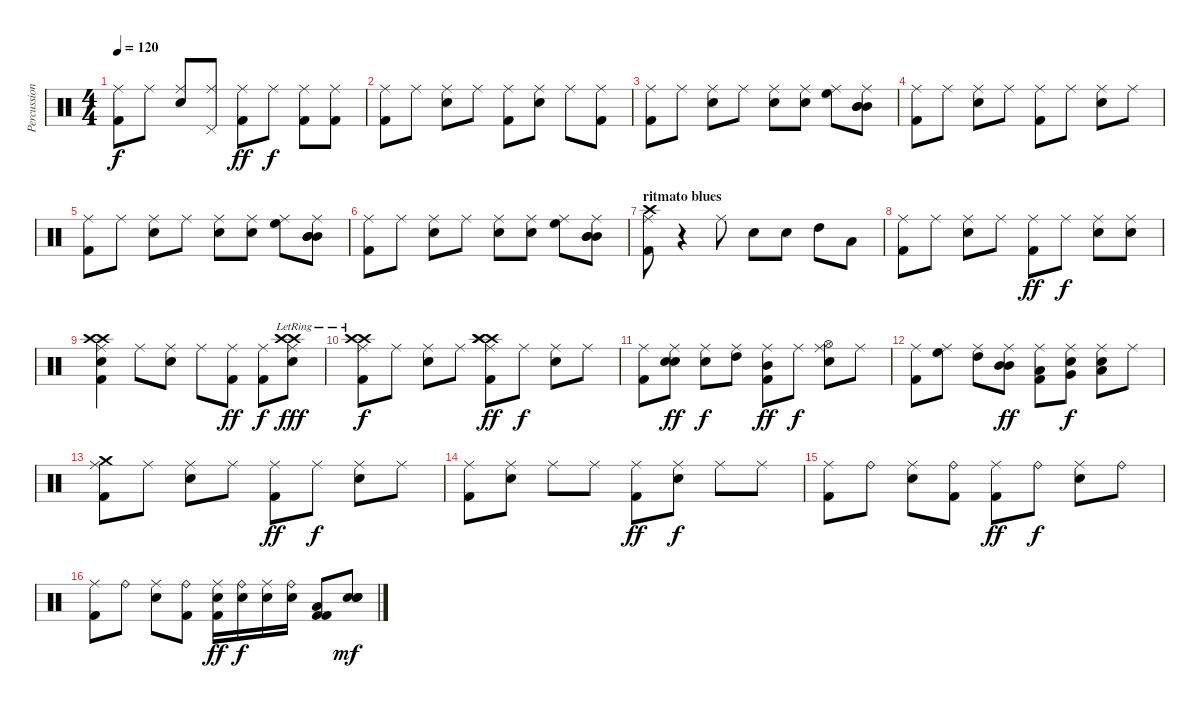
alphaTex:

\track ("Percussioni" "Percussion") {instrument percussion}
\staff {score}
\articulation defaults
\ts (4 4)
\tempo 120
\clef neutral
\ks c
("Kick (hit) 2" "Ride (middle)").8{dy f} "Ride (middle)".8 ("Electric Snare (hit)" "Ride (middle)").8 ("Pedal Hi-Hat (hit)" "Ride (middle)").8 ("Kick (hit) 2" "Ride (middle)").8{dy ff} "Ride (middle)".8{dy f} ("Kick (hit) 2" "Ride (middle)").8 ("Kick (hit) 2" "Ride (middle)").8 |
("Kick (hit) 2" "Ride (middle)").8 "Ride (middle)".8 ("Electric Snare (hit)" "Ride (middle)").8 "Ride (middle)".8 ("Kick (hit) 2" "Ride (middle)").8 ("Electric Snare (hit)" "Ride (middle)").8 "Ride (middle)".8 ("Kick (hit) 2" "Ride (middle)").8 |
("Kick (hit) 2" "Ride (middle)").8 "Ride (middle)".8 ("Electric Snare (hit)" "Ride (middle)").8 "Ride (middle)".8 ("Electric Snare (hit)" "Ride (middle)").8 ("Electric Snare (hit)" "Ride (middle)").8 ("High Floor Tom (hit)" "Ride (middle)").8 ("Mid Tom (hit)" "Mid Tom (hit)" "Mid Tom (hit)" "Ride (middle)").8 |
("Kick (hit) 2" "Ride (middle)").8 "Ride (middle)".8 ("Electric Snare (hit)" "Ride (middle)").8 "Ride (middle)".8 ("Kick (hit) 2" "Ride (middle)").8 "Ride (middle)".8 ("Electric Snare (hit)" "Ride (middle)").8 "Ride (middle)".8 |
("Kick (hit) 2" "Ride (middle)").8 "Ride (middle)".8 ("Electric Snare (hit)" "Ride (middle)").8 "Ride (middle)".8 ("Electric Snare (hit)" "Ride (middle)").8 ("Electric Snare (hit)" "Ride (middle)").8 ("High Floor Tom (hit)" "Ride (middle)").8 ("Mid Tom (hit)" "Mid Tom (hit)" "Mid Tom (hit)" "Ride (middle)").8 |
("Kick (hit) 2" "Ride (middle)").8 "Ride (middle)".8 ("Electric Snare (hit)" "Ride (middle)").8 "Ride (middle)".8 ("Electric Snare (hit)" "Ride (middle)").8 ("Electric Snare (hit)" "Ride (middle)").8 ("High Floor Tom (hit)" "Ride (middle)").8 ("Mid Tom (hit)" "Mid Tom (hit)" "Mid Tom (hit)" "Ride (middle)").8 |
\section ("" "ritmato blues")
("Crash high (hit)" "Kick (hit) 2" "Ride (middle)").8 r.4 "Ride (middle)".8 "Electric Snare (hit)".8 "Electric Snare (hit)".8 "High Tom (hit)".8 "Low Tom (hit)".8 |
("Kick (hit) 2" "Ride (middle)").8 "Ride (middle)".8 ("Electric Snare (hit)" "Ride (middle)").8 "Ride (middle)".8 ("Kick (hit) 2" "Ride (middle)").8{dy ff} "Ride (middle)".8{dy f} ("Electric Snare (hit)" "Ride (middle)").8 ("Electric Snare (hit)" "Ride (middle)").8 |
("Crash high (hit)" "Crash high (hit)" "Electric Snare (hit)" "Kick (hit) 2" "Ride (middle)").4 "Ride (middle)".8 ("Electric Snare (hit)" "Ride (middle)").8 "Ride (middle)".8 ("Kick (hit) 2" "Ride (middle)").8{dy ff} ("Kick (hit) 2" "Ride (middle)").8{dy f} ("Crash high (hit)" "Crash high (hit)"{lr} "Electric Snare (hit)" "Ride (middle)").8{dy fff} |
("Crash high (hit)"{lr} "Crash high (hit)"{lr} "Kick (hit) 2" "Ride (middle)").8{dy f} "Ride (middle)".8 ("Electric Snare (hit)" "Ride (middle)").8 "Ride (middle)".8 ("Crash high (hit)" "Crash high (hit)" "Crash high (hit)" "Kick (hit) 2" "Ride (middle)").8{dy ff} "Ride (middle)".8{dy f} ("Electric Snare (hit)" "Ride (middle)").8 "Ride (middle)".8 |
("Kick (hit) 2" "Ride (middle)").8 ("Electric Snare (hit)" "Electric Snare (hit)" "Ride (middle)").8{dy ff} ("Electric Snare (hit)" "Ride (middle)").8{dy f} ("High Tom (hit)" "Ride (middle)").8 ("Mid Tom (hit)" "Kick (hit) 2" "Ride (middle)").8{dy ff} "Ride (middle)".8{dy f} ("Hi-Hat (open)" "Electric Snare (hit)" "Ride (middle)").8 "Ride (middle)".8 |
("Kick (hit) 2" "Ride (middle)").8 ("High Floor Tom (hit)" "Ride (middle)").8 ("High Tom (hit)" "Ride (middle)").8 ("Mid Tom (hit)" "Mid Tom (hit)" "Ride (middle)").8{dy ff} ("Low Tom (hit)" "Kick (hit) 2" "Ride (middle)").8 ("Very Low Tom (hit)" "Electric Snare (hit)" "Ride (middle)").8{dy f} ("Low Floor Tom (hit)" "Electric Snare (hit)" "Ride (middle)").8 "Ride (middle)".8 |
("Crash medium (hit)" "Kick (hit) 2" "Ride (middle)").8 "Ride (middle)".8 ("Electric Snare (hit)" "Ride (middle)").8 "Ride (middle)".8 ("Kick (hit) 2" "Ride (middle)").8{dy ff} "Ride (middle)".8{dy f} ("Electric Snare (hit)" "Ride (middle)").8 "Ride (middle)".8 |
("Kick (hit) 2" "Ride (middle)").8 ("Electric Snare (hit)" "Ride (middle)").8 "Ride (middle)".8 "Ride (middle)".8 ("Kick (hit) 2" "Ride (middle)").8{dy ff} ("Electric Snare (hit)" "Ride (middle)").8{dy f} "Ride (middle)".8 "Ride (middle)".8 |
("Kick (hit) 2" "Ride (middle)").8 "Ride (bell)".8 ("Electric Snare (hit)" "Ride (middle)").8 ("Kick (hit) 2" "Ride (bell)").8 ("Kick (hit) 2" "Ride (middle)").8{dy ff} "Ride (bell)".8{dy f} ("Electric Snare (hit)" "Ride (middle)").8 "Ride (bell)".8 |
("Kick (hit) 2" "Ride (middle)").8 "Ride (bell)".8 ("Electric Snare (hit)" "Ride (middle)").8 ("Kick (hit) 2" "Ride (bell)").8 ("Electric Snare (hit)" "Kick (hit) 2" "Ride (middle)").16{dy ff} ("Electric Snare (hit)" "Ride (bell)").16{dy f} ("Electric Snare (hit)" "Ride (middle)").16 ("Electric Snare (hit)" "Ride (bell)").16 ("Low Tom (hit)" "Kick (hit) 2" "Kick (hit) 2").8 ("Electric Snare (hit)" "Electric Snare (hit)" "Electric Snare (hit)").8{bd 480 dy mf}
